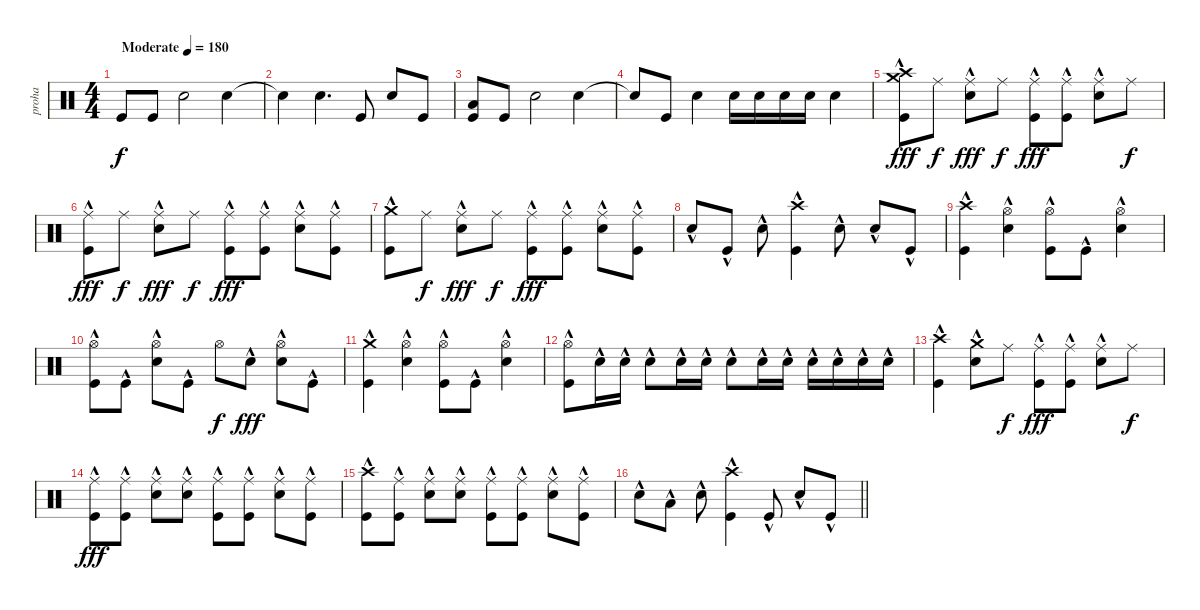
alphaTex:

\track ("proha" "proha") {instrument percussion}
\staff {score}
\articulation defaults
\ts (4 4)
\tempo (180 "Moderate")
\clef neutral
\ks c "Kick (hit)".8{dy f} "Kick (hit)".8 "Snare (hit) 2".2 "Snare (hit) 2".4
|
"Snare (hit)"{t}.4 "Snare (hit) 2".4{d} "Kick (hit)".8 "Snare (hit) 2".8 "Kick (hit)".8 |
("Kick (hit)" "Low Floor Tom (hit)").8 "Kick (hit)".8 "Snare (hit) 2".2 "Snare (hit) 2".4 |
"Snare (hit)"{t}.8 "Kick (hit)".8 "Snare (hit) 2".4 "Snare (hit) 2".16 "Snare (hit) 2".16 "Snare (hit) 2".16 "Snare (hit) 2".16 "Snare (hit) 2".4 |
("Crash high (hit)" "Kick (hit)"{hac} "Crash medium (hit)").8{dy fff} "Ride (middle)".8{dy f} ("Ride (middle)" "Snare (hit) 2"{hac}).8{dy fff} "Ride (middle)".8{dy f} ("Ride (middle)" "Kick (hit)"{hac}).8{dy fff} ("Ride (middle)" "Kick (hit)"{hac}).8 ("Ride (middle)" "Snare (hit) 2"{hac}).8 "Ride (middle)".8{dy f} |
("Ride (middle)" "Kick (hit)"{hac}).8{dy fff} "Ride (middle)".8{dy f} ("Ride (middle)" "Snare (hit) 2"{hac}).8{dy fff} "Ride (middle)".8{dy f} ("Ride (middle)" "Kick (hit)"{hac}).8{dy fff} ("Ride (middle)" "Kick (hit)"{hac}).8 ("Ride (middle)" "Snare (hit) 2"{hac}).8 ("Ride (middle)" "Kick (hit)"{hac}).8 |
("Crash medium (hit)" "Kick (hit)"{hac}).8 "Ride (middle)".8{dy f} ("Ride (middle)" "Snare (hit) 2"{hac}).8{dy fff} "Ride (middle)".8{dy f} ("Ride (middle)" "Kick (hit)"{hac}).8{dy fff} ("Ride (middle)" "Kick (hit)"{hac}).8 ("Ride (middle)" "Snare (hit) 2"{hac}).8 ("Ride (middle)" "Kick (hit)"{hac}).8 |
"Snare (hit) 2"{hac}.8 "Kick (hit)"{hac}.8 "Snare (hit) 2"{hac}.8 ("Crash high (hit)" "Kick (hit)"{hac}).4 "Snare (hit) 2"{hac}.8 "Snare (hit) 2"{hac}.8 "Kick (hit)"{hac}.8 |
("Kick (hit)"{hac} "Crash high (hit)").4 ("Snare (hit) 2"{hac} "Hi-Hat (open)").4 ("Kick (hit)"{hac} "Hi-Hat (open)").8 "Kick (hit)"{hac}.8 ("Snare (hit) 2"{hac} "Hi-Hat (open)").4 |
("Kick (hit)"{hac} "Hi-Hat (open)").8 "Kick (hit)"{hac}.8 ("Snare (hit) 2"{hac} "Hi-Hat (open)").8 "Kick (hit)"{hac}.8 "Hi-Hat (open)".8{dy f} "Snare (hit) 2"{hac}.8{dy fff} ("Snare (hit) 2"{hac} "Hi-Hat (open)").8 "Kick (hit)"{hac}.8 |
("Kick (hit)"{hac} "Crash medium (hit)").4 ("Snare (hit) 2"{hac} "Hi-Hat (open)").4 ("Kick (hit)"{hac} "Hi-Hat (open)").8 "Kick (hit)"{hac}.8 ("Snare (hit) 2"{hac} "Hi-Hat (open)").4 |
("Kick (hit)"{hac} "Hi-Hat (open)").8 "Snare (hit) 2"{hac}.16 "Snare (hit) 2"{hac}.16 "Snare (hit) 2"{hac}.8 "Snare (hit) 2"{hac}.16 "Snare (hit) 2"{hac}.16 "Snare (hit) 2"{hac}.8 "Snare (hit) 2"{hac}.16 "Snare (hit) 2"{hac}.16 "Snare (hit) 2"{hac}.16 "Snare (hit) 2"{hac}.16 "Snare (hit) 2"{hac}.16 "Snare (hit) 2"{hac}.16 |
("Kick (hit)"{hac} "Crash high (hit)").4 ("Snare (hit) 2"{hac} "Crash medium (hit)").8 "Ride (middle)".8{dy f} ("Ride (middle)" "Kick (hit)"{hac}).8{dy fff} ("Ride (middle)" "Kick (hit)"{hac}).8 ("Ride (middle)" "Snare (hit) 2"{hac}).8 "Ride (middle)".8{dy f} |
("Kick (hit)"{hac} "Ride (middle)").8{dy fff} ("Kick (hit)"{hac} "Ride (middle)").8 ("Snare (hit) 2"{hac} "Ride (middle)").8 ("Snare (hit) 2"{hac} "Ride (middle)").8 ("Kick (hit)"{hac} "Ride (middle)").8 ("Kick (hit)"{hac} "Ride (middle)").8 ("Snare (hit) 2"{hac} "Ride (middle)").8 ("Kick (hit)"{hac} "Ride (middle)").8 |
("Kick (hit)"{hac} "Crash high (hit)").8 ("Kick (hit)"{hac} "Ride (middle)").8 ("Snare (hit) 2"{hac} "Ride (middle)").8 ("Snare (hit) 2"{hac} "Ride (middle)").8 ("Kick (hit)"{hac} "Ride (middle)").8 ("Kick (hit)"{hac} "Ride (middle)").8 ("Snare (hit) 2"{hac} "Ride (middle)").8 ("Kick (hit)"{hac} "Ride (middle)").8 |
\barLineRight lightlight "Snare (hit) 2"{hac}.8 "Low Floor Tom (hit)"{hac}.8 "Snare (hit) 2"{hac}.8
("Kick (hit)"{hac} "Crash high (hit)").4 "Kick (hit)"{hac}.8 "Snare (hit) 2"{hac}.8 "Kick (hit)"{hac}.8
